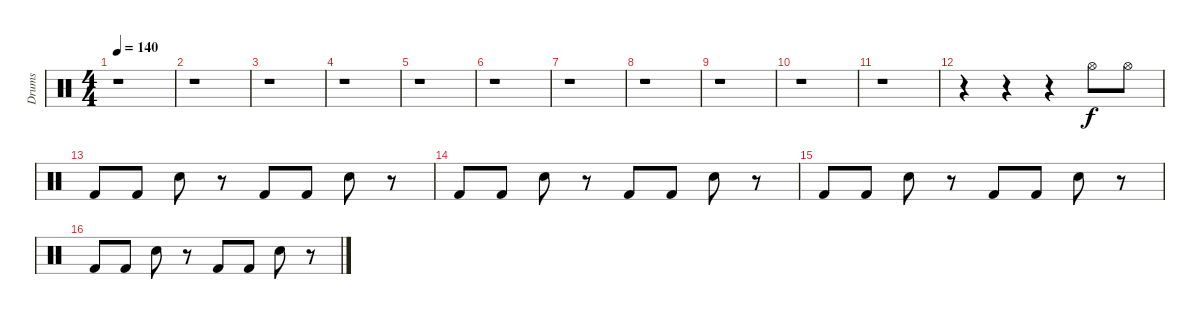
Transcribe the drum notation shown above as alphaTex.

\track ("Drums" "Drums") {instrument percussion}
\staff {score}
\articulation defaults
\ts (4 4)
\tempo 140
\clef neutral
\ks c
r.1{dy f} |
r.1 |
r.1 |
r.1 |
r.1 |
r.1 |
r.1 |
r.1 |
r.1 |
r.1 |
r.1 |
r.4 r.4 r.4 "Hi-Hat (open)".8 "Hi-Hat (open)".8 |
"Kick (hit) 2".8 "Kick (hit) 2".8 "Snare (hit) 2".8 r.8 "Kick (hit) 2".8 "Kick (hit) 2".8 "Snare (hit) 2".8 r.8 |
"Kick (hit) 2".8 "Kick (hit) 2".8 "Snare (hit) 2".8 r.8 "Kick (hit) 2".8 "Kick (hit) 2".8 "Snare (hit) 2".8 r.8 |
"Kick (hit) 2".8 "Kick (hit) 2".8 "Snare (hit) 2".8 r.8 "Kick (hit) 2".8 "Kick (hit) 2".8 "Snare (hit) 2".8 r.8 |
"Kick (hit) 2".8 "Kick (hit) 2".8 "Snare (hit) 2".8 r.8 "Kick (hit) 2".8 "Kick (hit) 2".8 "Snare (hit) 2".8 r.8
